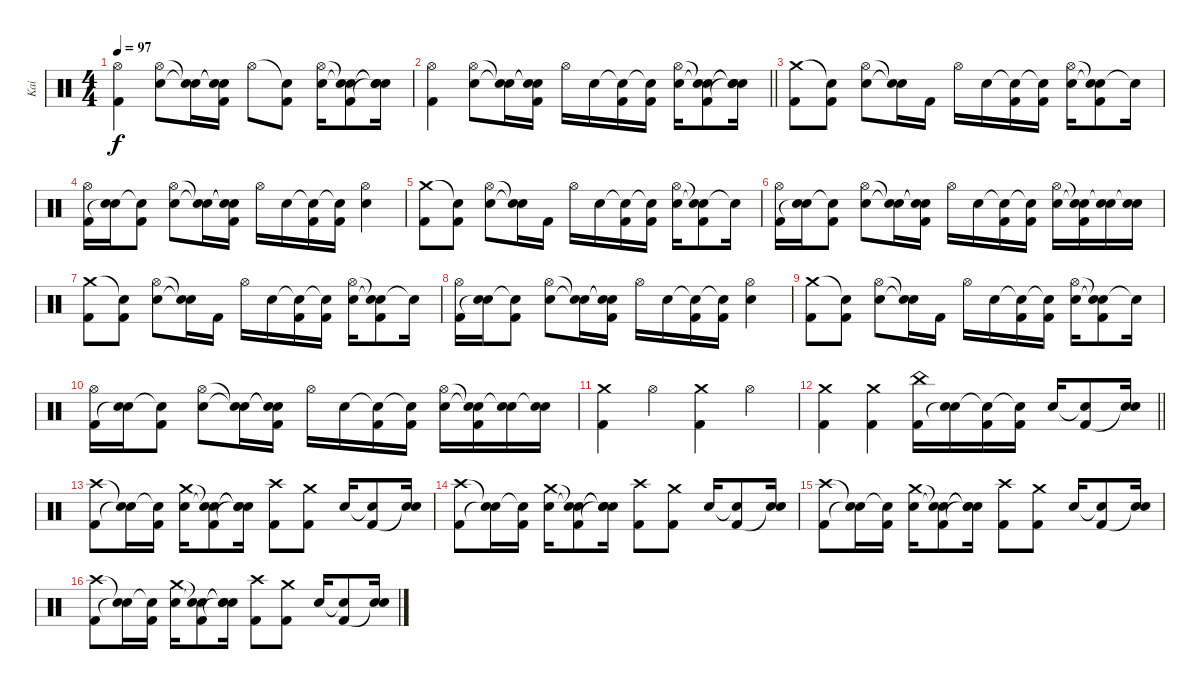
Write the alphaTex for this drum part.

\track ("Kai" "Kai") {instrument percussion}
\staff {score}
\articulation defaults
\ts (4 4)
\tempo 97
\clef neutral
\ks c
("Hi-Hat (open)" "Kick (hit) 2").4{dy f} ("Hi-Hat (open)" "Snare (hit) 2").8 ("Snare (hit)"{t} "Snare (hit)"{t}).16 ("Snare (hit)"{t} "Snare (hit)"{t} "Kick (hit) 2").16 "Hi-Hat (open)".8 ("Snare (hit)"{t} "Kick (hit) 2").8 ("Hi-Hat (open)" "Snare (hit) 2").16 ("Snare (hit)"{t} "Snare (hit)"{t} "Kick (hit) 2").8 ("Snare (hit)"{t} "Snare (hit)"{t} "Snare (hit)"{t}).16 |
\barLineRight lightlight
("Hi-Hat (open)" "Kick (hit) 2").4 ("Hi-Hat (open)" "Snare (hit) 2").8 ("Snare (hit)"{t} "Snare (hit)"{t}).16 ("Snare (hit)"{t} "Snare (hit)"{t} "Kick (hit) 2").16 "Hi-Hat (open)".16 "Snare (hit) 2".16 ("Snare (hit)"{t} "Kick (hit) 2").16 ("Snare (hit)"{t} "Kick (hit) 2").16 ("Hi-Hat (open)" "Snare (hit) 2").16 ("Snare (hit)"{t} "Snare (hit)"{t} "Kick (hit) 2").8 ("Snare (hit)"{t} "Snare (hit)"{t} "Snare (hit)"{t}).16 |
("Crash medium (hit)" "Kick (hit) 2").8 ("Snare (hit)"{t} "Kick (hit) 2").8 ("Hi-Hat (open)" "Snare (hit) 2").8 ("Snare (hit)"{t} "Snare (hit)"{t}).16 "Kick (hit) 2".16 "Hi-Hat (open)".16 "Snare (hit) 2".16 ("Snare (hit)"{t} "Kick (hit) 2").16 ("Snare (hit)"{t} "Kick (hit) 2").16 ("Hi-Hat (open)" "Snare (hit) 2").16 ("Snare (hit)"{t} "Snare (hit)"{t} "Kick (hit) 2").8 "Snare (hit)"{t}.16 |
("Hi-Hat (open)" "Kick (hit) 2").16 ("Snare (hit) 2" "Snare (hit)"{t}).16 ("Snare (hit)"{t} "Kick (hit) 2").8 ("Hi-Hat (open)" "Snare (hit) 2").8 ("Snare (hit)"{t} "Snare (hit)"{t}).16 ("Snare (hit)"{t} "Snare (hit)"{t} "Kick (hit) 2").16 "Hi-Hat (open)".16 "Snare (hit) 2".16 ("Snare (hit)"{t} "Kick (hit) 2").16 ("Snare (hit)"{t} "Kick (hit) 2").16 ("Hi-Hat (open)" "Snare (hit) 2").4 |
("Crash medium (hit)" "Kick (hit) 2").8 ("Snare (hit)"{t} "Kick (hit) 2").8 ("Hi-Hat (open)" "Snare (hit) 2").8 ("Snare (hit)"{t} "Snare (hit)"{t}).16 "Kick (hit) 2".16 "Hi-Hat (open)".16 "Snare (hit) 2".16 ("Snare (hit)"{t} "Kick (hit) 2").16 ("Snare (hit)"{t} "Kick (hit) 2").16 ("Hi-Hat (open)" "Snare (hit) 2").16 ("Snare (hit)"{t} "Snare (hit)"{t} "Kick (hit) 2").8 "Snare (hit)"{t}.16 |
("Hi-Hat (open)" "Kick (hit) 2").16 ("Snare (hit) 2" "Snare (hit)"{t}).16 ("Snare (hit)"{t} "Kick (hit) 2").8 ("Hi-Hat (open)" "Snare (hit) 2").8 ("Snare (hit)"{t} "Snare (hit)"{t}).16 ("Snare (hit)"{t} "Snare (hit)"{t} "Kick (hit) 2").16 "Hi-Hat (open)".16 "Snare (hit) 2".16 ("Snare (hit)"{t} "Kick (hit) 2").16 ("Snare (hit)"{t} "Kick (hit) 2").16 ("Hi-Hat (open)" "Snare (hit) 2").16 ("Snare (hit)"{t} "Snare (hit)"{t} "Kick (hit) 2").16 ("Snare (hit) 2" "Snare (hit)"{t}).16 ("Snare (hit) 2" "Snare (hit)"{t}).16 |
("Crash medium (hit)" "Kick (hit) 2").8 ("Snare (hit)"{t} "Kick (hit) 2").8 ("Hi-Hat (open)" "Snare (hit) 2").8 ("Snare (hit)"{t} "Snare (hit)"{t}).16 "Kick (hit) 2".16 "Hi-Hat (open)".16 "Snare (hit) 2".16 ("Snare (hit)"{t} "Kick (hit) 2").16 ("Snare (hit)"{t} "Kick (hit) 2").16 ("Hi-Hat (open)" "Snare (hit) 2").16 ("Snare (hit)"{t} "Snare (hit)"{t} "Kick (hit) 2").8 "Snare (hit)"{t}.16 |
("Hi-Hat (open)" "Kick (hit) 2").16 ("Snare (hit) 2" "Snare (hit)"{t}).16 ("Snare (hit)"{t} "Kick (hit) 2").8 ("Hi-Hat (open)" "Snare (hit) 2").8 ("Snare (hit)"{t} "Snare (hit)"{t}).16 ("Snare (hit)"{t} "Snare (hit)"{t} "Kick (hit) 2").16 "Hi-Hat (open)".16 "Snare (hit) 2".16 ("Snare (hit)"{t} "Kick (hit) 2").16 ("Snare (hit)"{t} "Kick (hit) 2").16 ("Hi-Hat (open)" "Snare (hit) 2").4 |
("Crash medium (hit)" "Kick (hit) 2").8 ("Snare (hit)"{t} "Kick (hit) 2").8 ("Hi-Hat (open)" "Snare (hit) 2").8 ("Snare (hit)"{t} "Snare (hit)"{t}).16 "Kick (hit) 2".16 "Hi-Hat (open)".16 "Snare (hit) 2".16 ("Snare (hit)"{t} "Kick (hit) 2").16 ("Snare (hit)"{t} "Kick (hit) 2").16 ("Hi-Hat (open)" "Snare (hit) 2").16 ("Snare (hit)"{t} "Snare (hit)"{t} "Kick (hit) 2").8 "Snare (hit)"{t}.16 |
("Hi-Hat (open)" "Kick (hit) 2").16 ("Snare (hit) 2" "Snare (hit)"{t}).16 ("Snare (hit)"{t} "Kick (hit) 2").8 ("Hi-Hat (open)" "Snare (hit) 2").8 ("Snare (hit)"{t} "Snare (hit)"{t}).16 ("Snare (hit)"{t} "Snare (hit)"{t} "Kick (hit) 2").16 "Hi-Hat (open)".16 "Snare (hit) 2".16 ("Snare (hit)"{t} "Kick (hit) 2").16 ("Snare (hit)"{t} "Kick (hit) 2").16 ("Hi-Hat (open)" "Snare (hit) 2").16 ("Snare (hit)"{t} "Snare (hit)"{t} "Kick (hit) 2").16 ("Snare (hit) 2" "Snare (hit)"{t}).16 ("Snare (hit) 2" "Snare (hit)"{t}).16 |
("Crash medium (hit)" "Kick (hit) 2").4 "Hi-Hat (open)".4 ("Crash medium (hit)" "Kick (hit) 2").4 "Hi-Hat (open)".4 |
\barLineRight lightlight
("Crash medium (hit)" "Kick (hit) 2").4 ("Crash medium (hit)" "Kick (hit) 2").4 ("China (hit)" "Kick (hit) 2").16 ("Snare (hit) 2" "Snare (hit)"{t}).16 ("Snare (hit)"{t} "Kick (hit) 2").16 ("Snare (hit)"{t} "Kick (hit) 2").16 "Snare (hit) 2".16 ("Snare (hit)"{t} "Kick (hit) 2").8 ("Snare (hit) 2" "Snare (hit)"{t}).16 |
("Crash high (hit)" "Kick (hit) 2").8 ("Snare (hit)"{t} "Snare (hit)"{t}).16 ("Snare (hit)"{t} "Kick (hit) 2").16 ("Crash medium (hit)" "Snare (hit) 2").16 ("Snare (hit)"{t} "Snare (hit)"{t} "Kick (hit) 2").8 ("Snare (hit)"{t} "Snare (hit)"{t} "Snare (hit)"{t}).16 ("Crash high (hit)" "Kick (hit) 2").8 ("Crash medium (hit)" "Kick (hit) 2").8 "Snare (hit) 2".16 ("Snare (hit)"{t} "Kick (hit) 2").8 ("Snare (hit) 2" "Snare (hit)"{t}).16 |
("Crash high (hit)" "Kick (hit) 2").8 ("Snare (hit)"{t} "Snare (hit)"{t}).16 ("Snare (hit)"{t} "Kick (hit) 2").16 ("Crash medium (hit)" "Snare (hit) 2").16 ("Snare (hit)"{t} "Snare (hit)"{t} "Kick (hit) 2").8 ("Snare (hit)"{t} "Snare (hit)"{t} "Snare (hit)"{t}).16 ("Crash high (hit)" "Kick (hit) 2").8 ("Crash medium (hit)" "Kick (hit) 2").8 "Snare (hit) 2".16 ("Snare (hit)"{t} "Kick (hit) 2").8 ("Snare (hit) 2" "Snare (hit)"{t}).16 |
("Crash high (hit)" "Kick (hit) 2").8 ("Snare (hit)"{t} "Snare (hit)"{t}).16 ("Snare (hit)"{t} "Kick (hit) 2").16 ("Crash medium (hit)" "Snare (hit) 2").16 ("Snare (hit)"{t} "Snare (hit)"{t} "Kick (hit) 2").8 ("Snare (hit)"{t} "Snare (hit)"{t} "Snare (hit)"{t}).16 ("Crash high (hit)" "Kick (hit) 2").8 ("Crash medium (hit)" "Kick (hit) 2").8 "Snare (hit) 2".16 ("Snare (hit)"{t} "Kick (hit) 2").8 ("Snare (hit) 2" "Snare (hit)"{t}).16 |
("Crash high (hit)" "Kick (hit) 2").8 ("Snare (hit)"{t} "Snare (hit)"{t}).16 ("Snare (hit)"{t} "Kick (hit) 2").16 ("Crash medium (hit)" "Snare (hit) 2").16 ("Snare (hit)"{t} "Snare (hit)"{t} "Kick (hit) 2").8 ("Snare (hit)"{t} "Snare (hit)"{t} "Snare (hit)"{t}).16 ("Crash high (hit)" "Kick (hit) 2").8 ("Crash medium (hit)" "Kick (hit) 2").8 "Snare (hit) 2".16 ("Snare (hit)"{t} "Kick (hit) 2").8 ("Snare (hit) 2" "Snare (hit)"{t}).16
